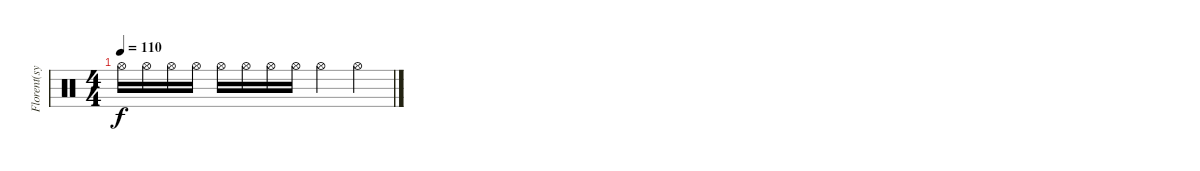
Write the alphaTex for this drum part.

\track ("Florent(symbales)" "Florent(sy") {instrument percussion}
\staff {score}
\articulation defaults
\ts (4 4)
\tempo 110
\clef neutral
\ks c "Hi-Hat (open)".16{dy f} "Hi-Hat (open)".16 "Hi-Hat (open)".16 "Hi-Hat (open)".16 "Hi-Hat (open)".16 "Hi-Hat (open)".16 "Hi-Hat (open)".16 "Hi-Hat (open)".16 "Hi-Hat (open)".4 "Hi-Hat (open)".4
